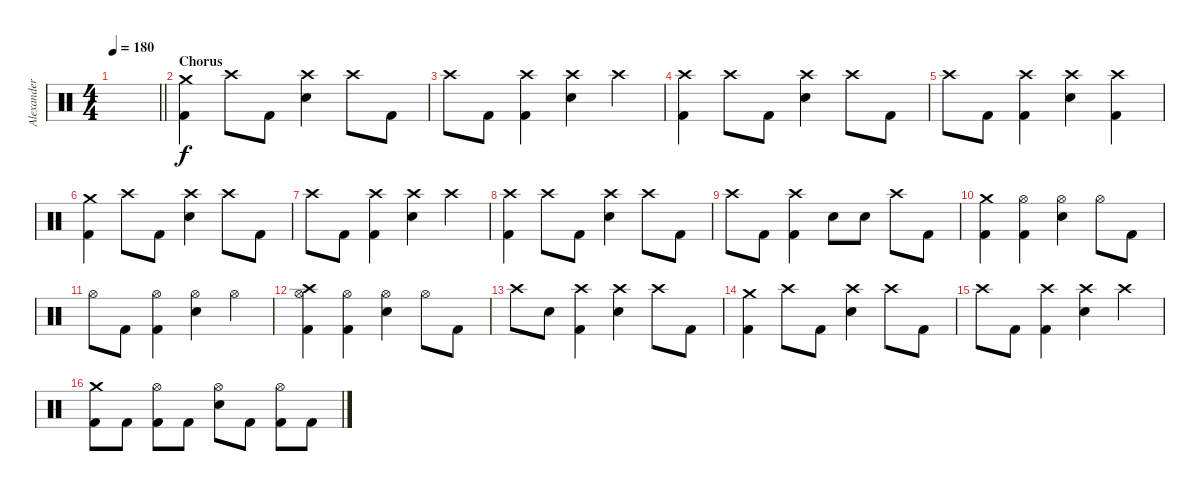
\track ("Alexander Sveningsson" "Alexander ") {instrument percussion}
\staff {score}
\articulation defaults
\ts (4 4)
\tempo 180
\clef neutral
\barLineRight lightlight
\ks c
|
\section ("" "Chorus")
("Crash medium (hit)" "Kick (hit) 2").4 "Crash high (hit)".8 "Kick (hit) 2".8 ("Crash high (hit)" "Electric Snare (hit)").4 "Crash high (hit)".8 "Kick (hit) 2".8 |
"Crash high (hit)".8 "Kick (hit) 2".8 ("Crash high (hit)" "Kick (hit) 2").4 ("Crash high (hit)" "Electric Snare (hit)").4 "Crash high (hit)".4 |
("Crash high (hit)" "Kick (hit) 2").4 "Crash high (hit)".8 "Kick (hit) 2".8 ("Crash high (hit)" "Electric Snare (hit)").4 "Crash high (hit)".8 "Kick (hit) 2".8 |
"Crash high (hit)".8 "Kick (hit) 2".8 ("Crash high (hit)" "Kick (hit) 2").4 ("Crash high (hit)" "Electric Snare (hit)").4 ("Crash high (hit)" "Kick (hit) 2").4 |
("Crash medium (hit)" "Kick (hit) 2").4 "Crash high (hit)".8 "Kick (hit) 2".8 ("Crash high (hit)" "Electric Snare (hit)").4 "Crash high (hit)".8 "Kick (hit) 2".8 |
"Crash high (hit)".8 "Kick (hit) 2".8 ("Crash high (hit)" "Kick (hit) 2").4 ("Crash high (hit)" "Electric Snare (hit)").4 "Crash high (hit)".4 |
("Crash high (hit)" "Kick (hit) 2").4 "Crash high (hit)".8 "Kick (hit) 2".8 ("Crash high (hit)" "Electric Snare (hit)").4 "Crash high (hit)".8 "Kick (hit) 2".8 |
"Crash high (hit)".8 "Kick (hit) 2".8 ("Crash high (hit)" "Kick (hit) 2").4 "Electric Snare (hit)".8 "Electric Snare (hit)".8 "Crash high (hit)".8 "Kick (hit) 2".8 |
("Crash medium (hit)" "Kick (hit) 2").4 ("Hi-Hat (open)" "Kick (hit) 2").4 ("Hi-Hat (open)" "Electric Snare (hit)").4 "Hi-Hat (open)".8 "Kick (hit) 2".8 |
"Hi-Hat (open)".8 "Kick (hit) 2".8 ("Hi-Hat (open)" "Kick (hit) 2").4 ("Hi-Hat (open)" "Electric Snare (hit)").4 "Hi-Hat (open)".4 |
("Crash high (hit)" "Hi-Hat (open)" "Kick (hit) 2").4 ("Hi-Hat (open)" "Kick (hit) 2").4 ("Hi-Hat (open)" "Electric Snare (hit)").4 "Hi-Hat (open)".8 "Kick (hit) 2".8 |
"Crash high (hit)".8 "Electric Snare (hit)".8 ("Crash high (hit)" "Kick (hit) 2").4 ("Crash high (hit)" "Electric Snare (hit)").4 "Crash high (hit)".8 "Kick (hit) 2".8 |
("Crash medium (hit)" "Kick (hit) 2").4 "Crash high (hit)".8 "Kick (hit) 2".8 ("Crash high (hit)" "Electric Snare (hit)").4 "Crash high (hit)".8 "Kick (hit) 2".8 |
"Crash high (hit)".8 "Kick (hit) 2".8 ("Crash high (hit)" "Kick (hit) 2").4 ("Crash high (hit)" "Electric Snare (hit)").4 "Crash high (hit)".4 |
("Crash medium (hit)" "Kick (hit) 2").8 "Kick (hit) 2".8 ("Hi-Hat (open)" "Kick (hit) 2").8 "Kick (hit) 2".8 ("Hi-Hat (open)" "Electric Snare (hit)").8 "Kick (hit) 2".8 ("Hi-Hat (open)" "Kick (hit) 2").8 "Kick (hit) 2".8
